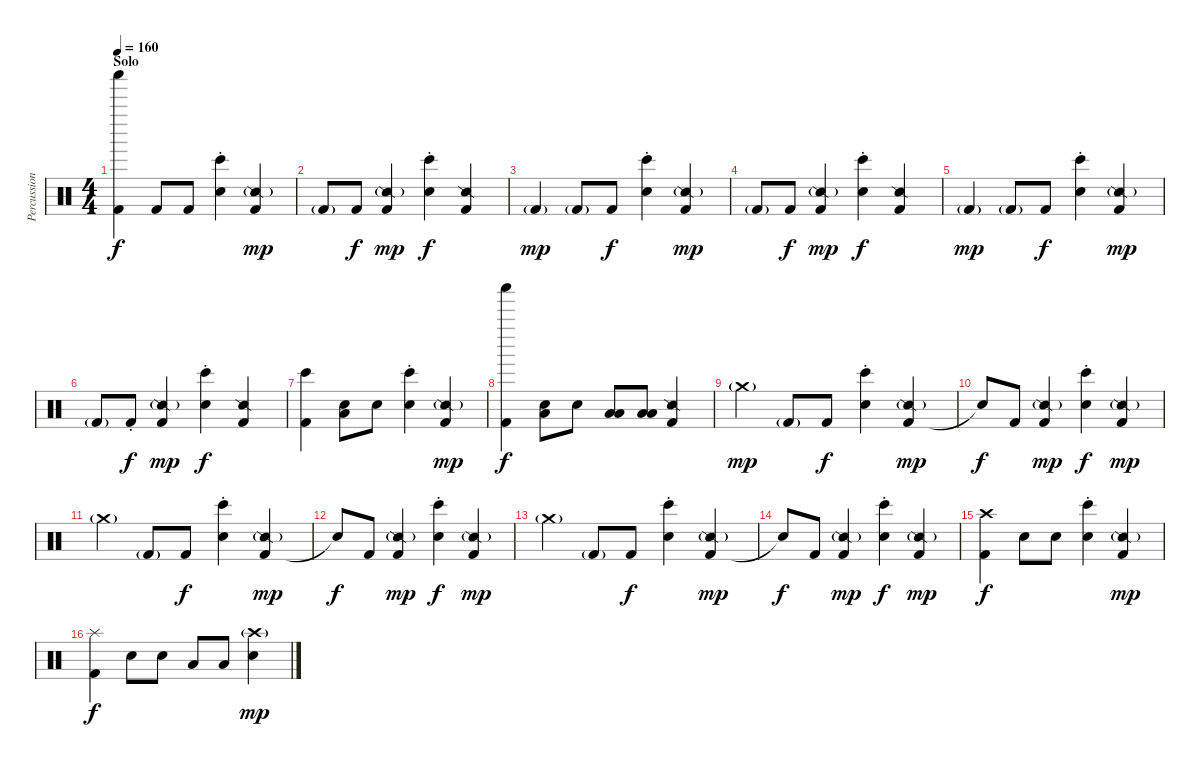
\track ("Percussion" "Percussion") {instrument percussion}
\staff {score}
\articulation defaults
\ts (4 4)
\section ("" "Solo")
\tempo 160
\clef neutral
\ks c
("Kick (hit) 2" "Shaker (hit)").4{dy f} "Kick (hit) 2".8 "Kick (hit) 2".8 ("Electric Snare (hit)" "Bongo High (hit)"{st}).4 ("Kick (hit) 2" "Snare (side stick) 2"{g}).4{dy mp} |
"Kick (hit) 2"{g}.8 "Kick (hit) 2".8{dy f} ("Kick (hit) 2" "Snare (side stick) 2"{g}).4{dy mp} ("Electric Snare (hit)" "Bongo High (hit)"{st}).4{dy f} ("Kick (hit) 2" "Snare (side stick) 2").4 |
"Kick (hit) 2"{g}.4{dy mp} "Kick (hit) 2"{g}.8 "Kick (hit) 2".8{dy f} ("Electric Snare (hit)" "Bongo High (hit)"{st}).4 ("Kick (hit) 2" "Snare (side stick) 2"{g}).4{dy mp} |
"Kick (hit) 2"{g}.8 "Kick (hit) 2".8{dy f} ("Kick (hit) 2" "Snare (side stick) 2"{g}).4{dy mp} ("Electric Snare (hit)" "Bongo High (hit)"{st}).4{dy f} ("Kick (hit) 2" "Snare (side stick) 2").4 |
"Kick (hit) 2"{g}.4{dy mp} "Kick (hit) 2"{g}.8 "Kick (hit) 2".8{dy f} ("Electric Snare (hit)" "Bongo High (hit)"{st}).4 ("Kick (hit) 2" "Snare (side stick) 2"{g}).4{dy mp} |
"Kick (hit) 2"{g}.8 "Kick (hit) 2"{st}.8{dy f} ("Kick (hit) 2" "Snare (side stick) 2"{g}).4{dy mp} ("Electric Snare (hit)" "Bongo High (hit)"{st}).4{dy f} ("Kick (hit) 2" "Snare (side stick) 2").4 |
("Kick (hit) 2" "Bongo High (hit)").4 ("Electric Snare (hit)" "Low Floor Tom (hit)").8 "Electric Snare (hit)".8 ("Electric Snare (hit)" "Bongo High (hit)"{st}).4 ("Kick (hit) 2" "Snare (side stick) 2"{g}).4{dy mp} |
("Kick (hit) 2" "Shaker (hit)").4{dy f} ("Electric Snare (hit)" "Low Floor Tom (hit)").8 "Electric Snare (hit)".8 ("Low Tom (hit)" "Low Floor Tom (hit)").8 ("Low Tom (hit)" "Low Floor Tom (hit)").8 ("Kick (hit) 2" "Snare (side stick) 2").4 |
"Crash medium (hit)"{g}.4{dy mp} "Kick (hit) 2"{g}.8 "Kick (hit) 2".8{dy f} ("Electric Snare (hit)"{st} "Bongo High (hit)").4 ("Kick (hit) 2" "Snare (side stick) 2"{g}).4{dy mp} |
"Snare (hit)"{t}.8{dy f} "Kick (hit) 2".8 ("Kick (hit) 2" "Snare (side stick) 2"{g}).4{dy mp} ("Electric Snare (hit)"{st} "Bongo High (hit)").4{dy f} ("Kick (hit) 2" "Snare (side stick) 2"{g}).4{dy mp} |
"Crash medium (hit)"{g}.4 "Kick (hit) 2"{g}.8 "Kick (hit) 2".8{dy f} ("Electric Snare (hit)"{st} "Bongo High (hit)").4 ("Kick (hit) 2" "Snare (side stick) 2"{g}).4{dy mp} |
"Snare (hit)"{t}.8{dy f} "Kick (hit) 2".8 ("Kick (hit) 2" "Snare (side stick) 2"{g}).4{dy mp} ("Electric Snare (hit)"{st} "Bongo High (hit)").4{dy f} ("Kick (hit) 2" "Snare (side stick) 2"{g}).4{dy mp} |
"Crash medium (hit)"{g}.4 "Kick (hit) 2"{g}.8 "Kick (hit) 2".8{dy f} ("Electric Snare (hit)"{st} "Bongo High (hit)").4 ("Kick (hit) 2" "Snare (side stick) 2"{g}).4{dy mp} |
"Snare (hit)"{t}.8{dy f} "Kick (hit) 2".8 ("Kick (hit) 2" "Snare (side stick) 2"{g}).4{dy mp} ("Electric Snare (hit)"{st} "Bongo High (hit)").4{dy f} ("Kick (hit) 2" "Snare (side stick) 2"{g}).4{dy mp} |
("Kick (hit) 2" "Crash high (hit)").4{dy f} "Electric Snare (hit)".8 "Electric Snare (hit)".8 ("Electric Snare (hit)"{st} "Bongo High (hit)").4 ("Kick (hit) 2" "Snare (side stick) 2"{g}).4{dy mp} |
("Kick (hit) 2" "Splash (hit)").4{dy f} "Electric Snare (hit)".8 "Electric Snare (hit)".8 "Low Tom (hit)".8 "Low Tom (hit)".8 ("Electric Snare (hit)" "Crash high (hit)"{g}).4{dy mp}
